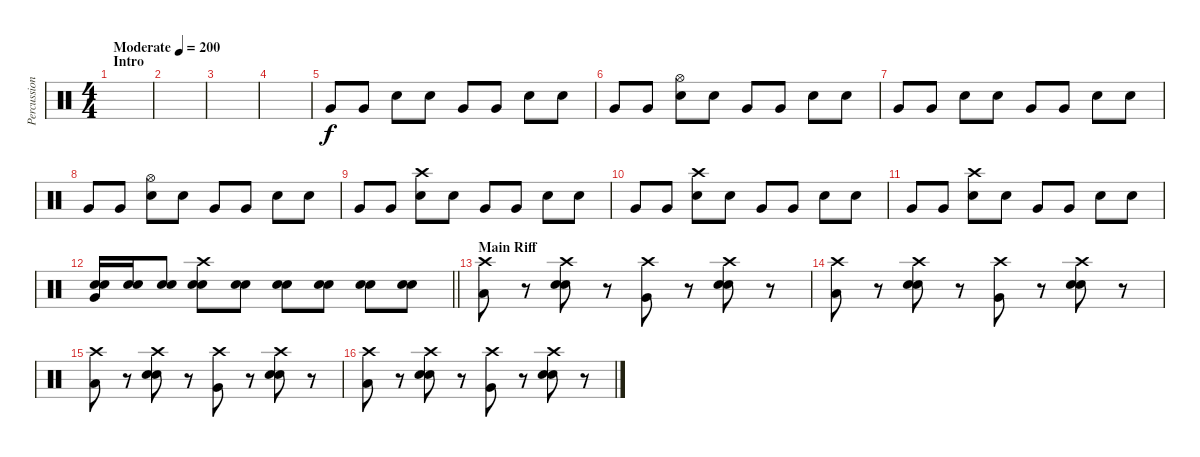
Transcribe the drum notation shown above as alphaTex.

\track ("Percussion" "Percussion") {instrument percussion}
\staff {score}
\articulation defaults
\ts (4 4)
\section ("" "Intro")
\tempo (200 "Moderate")
\clef neutral
\ks c
|
|
|
|
"Very Low Tom (hit)".8 "Very Low Tom (hit)".8 "Snare (hit) 2".8 "Snare (hit) 2".8 "Very Low Tom (hit)".8 "Very Low Tom (hit)".8 "Snare (hit) 2".8 "Snare (hit) 2".8 |
"Very Low Tom (hit)".8 "Very Low Tom (hit)".8 ("Hi-Hat (open)" "Snare (hit) 2").8 "Snare (hit) 2".8 "Very Low Tom (hit)".8 "Very Low Tom (hit)".8 "Snare (hit) 2".8 "Snare (hit) 2".8 |
"Very Low Tom (hit)".8 "Very Low Tom (hit)".8 "Snare (hit) 2".8 "Snare (hit) 2".8 "Very Low Tom (hit)".8 "Very Low Tom (hit)".8 "Snare (hit) 2".8 "Snare (hit) 2".8 |
"Very Low Tom (hit)".8 "Very Low Tom (hit)".8 ("Hi-Hat (open)" "Snare (hit) 2").8 "Snare (hit) 2".8 "Very Low Tom (hit)".8 "Very Low Tom (hit)".8 "Snare (hit) 2".8 "Snare (hit) 2".8 |
"Very Low Tom (hit)".8 "Very Low Tom (hit)".8 ("Crash high (hit)" "Snare (hit) 2").8 "Snare (hit) 2".8 "Very Low Tom (hit)".8 "Very Low Tom (hit)".8 "Snare (hit) 2".8 "Snare (hit) 2".8 |
"Very Low Tom (hit)".8 "Very Low Tom (hit)".8 ("Crash high (hit)" "Snare (hit) 2").8 "Snare (hit) 2".8 "Very Low Tom (hit)".8 "Very Low Tom (hit)".8 "Snare (hit) 2".8 "Snare (hit) 2".8 |
"Very Low Tom (hit)".8 "Very Low Tom (hit)".8 ("Crash high (hit)" "Snare (hit) 2").8 "Snare (hit) 2".8 "Very Low Tom (hit)".8 "Very Low Tom (hit)".8 "Snare (hit) 2".8 "Snare (hit) 2".8 |
\barLineRight lightlight
("Electric Snare (hit)" "Snare (hit) 2" "Very Low Tom (hit)").16 ("Electric Snare (hit)" "Snare (hit) 2").16 ("Electric Snare (hit)" "Snare (hit) 2").8 ("Electric Snare (hit)" "Snare (hit) 2" "Crash high (hit)").8 ("Electric Snare (hit)" "Snare (hit) 2").8 ("Electric Snare (hit)" "Snare (hit) 2").8 ("Electric Snare (hit)" "Snare (hit) 2").8 ("Electric Snare (hit)" "Snare (hit) 2").8 ("Electric Snare (hit)" "Snare (hit) 2").8 |
\section ("" "Main Riff")
("Crash high (hit)" "Low Floor Tom (hit)").8 r.8 ("Crash high (hit)" "Snare (hit) 2" "Electric Snare (hit)").8 r.8 ("Crash high (hit)" "Very Low Tom (hit)").8 r.8 ("Crash high (hit)" "Snare (hit) 2" "Electric Snare (hit)").8 r.8 |
("Crash high (hit)" "Low Floor Tom (hit)").8 r.8 ("Crash high (hit)" "Snare (hit) 2" "Electric Snare (hit)").8 r.8 ("Crash high (hit)" "Very Low Tom (hit)").8 r.8 ("Crash high (hit)" "Snare (hit) 2" "Electric Snare (hit)").8 r.8 |
("Crash high (hit)" "Low Floor Tom (hit)").8 r.8 ("Crash high (hit)" "Snare (hit) 2" "Electric Snare (hit)").8 r.8 ("Crash high (hit)" "Very Low Tom (hit)").8 r.8 ("Crash high (hit)" "Snare (hit) 2" "Electric Snare (hit)").8 r.8 |
("Crash high (hit)" "Low Floor Tom (hit)").8 r.8 ("Crash high (hit)" "Snare (hit) 2" "Electric Snare (hit)").8 r.8 ("Crash high (hit)" "Very Low Tom (hit)").8 r.8 ("Crash high (hit)" "Snare (hit) 2" "Electric Snare (hit)").8 r.8
